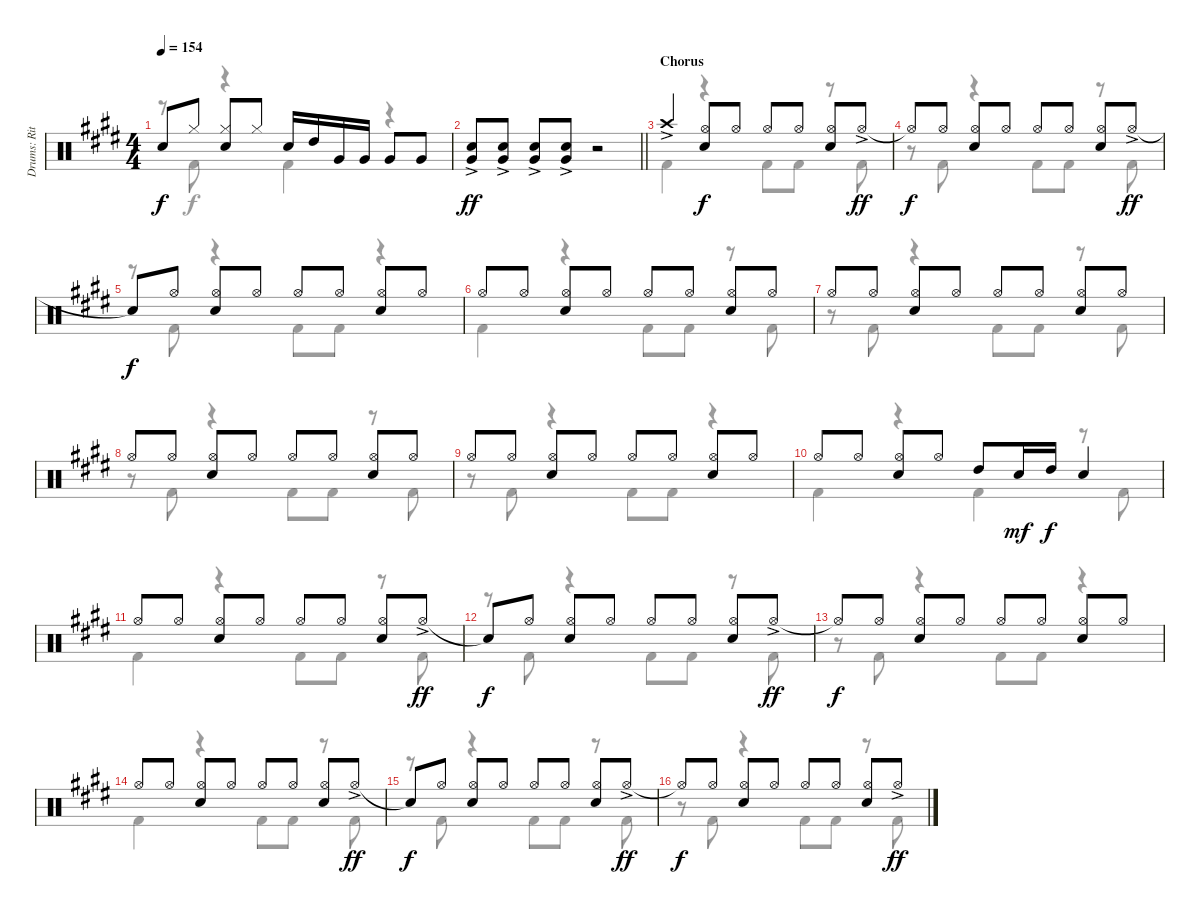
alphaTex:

\track ("Drums: Ritsu Tainaka" "Drums: Rit") {instrument percussion}
\staff {score}
\articulation defaults
\voice
\ts (4 4)
\tempo 154
\clef neutral
\ks e "Snare (hit)"{t}.8{dy f} "Hi-Hat (closed)".8
("Hi-Hat (closed)" "Electric Snare (hit)").8 "Hi-Hat (closed)".8 "Electric Snare (hit)".16 "High Tom (hit)".16 "Very Low Tom (hit)".16 "Very Low Tom (hit)".16 "Very Low Tom (hit)".8 "Very Low Tom (hit)".8 |
\barLineRight lightlight
("Electric Snare (hit)"{ac} "Very Low Tom (hit)"{ac}).8{dy ff} ("Electric Snare (hit)"{ac} "Very Low Tom (hit)"{ac}).8 ("Electric Snare (hit)"{ac} "Very Low Tom (hit)"{ac}).8 ("Electric Snare (hit)"{ac} "Very Low Tom (hit)"{ac}).8 r.2 |
\section ("" "Chorus")
"Crash high (hit)"{ac}.4 ("Hi-Hat (open)" "Electric Snare (hit)").8{dy f} "Hi-Hat (open)".8 "Hi-Hat (open)".8 "Hi-Hat (open)".8 ("Hi-Hat (open)" "Electric Snare (hit)").8 "Hi-Hat (open)"{ac}.8{dy ff} |
"Hi-Hat (open)"{t}.8{dy f} "Hi-Hat (open)".8 ("Hi-Hat (open)" "Electric Snare (hit)").8 "Hi-Hat (open)".8 "Hi-Hat (open)".8 "Hi-Hat (open)".8 ("Hi-Hat (open)" "Electric Snare (hit)").8 "Hi-Hat (open)"{ac}.8{dy ff} |
"Snare (hit)"{t}.8{dy f} "Hi-Hat (open)".8 ("Hi-Hat (open)" "Electric Snare (hit)").8 "Hi-Hat (open)".8 "Hi-Hat (open)".8 "Hi-Hat (open)".8 ("Hi-Hat (open)" "Electric Snare (hit)").8 "Hi-Hat (open)".8 |
"Hi-Hat (open)".8 "Hi-Hat (open)".8 ("Hi-Hat (open)" "Electric Snare (hit)").8 "Hi-Hat (open)".8 "Hi-Hat (open)".8 "Hi-Hat (open)".8 ("Hi-Hat (open)" "Electric Snare (hit)").8 "Hi-Hat (open)".8 |
"Hi-Hat (open)".8 "Hi-Hat (open)".8 ("Hi-Hat (open)" "Electric Snare (hit)").8 "Hi-Hat (open)".8 "Hi-Hat (open)".8 "Hi-Hat (open)".8 ("Hi-Hat (open)" "Electric Snare (hit)").8 "Hi-Hat (open)".8 |
"Hi-Hat (open)".8 "Hi-Hat (open)".8 ("Hi-Hat (open)" "Electric Snare (hit)").8 "Hi-Hat (open)".8 "Hi-Hat (open)".8 "Hi-Hat (open)".8 ("Hi-Hat (open)" "Electric Snare (hit)").8 "Hi-Hat (open)".8 |
"Hi-Hat (open)".8 "Hi-Hat (open)".8 ("Hi-Hat (open)" "Electric Snare (hit)").8 "Hi-Hat (open)".8 "Hi-Hat (open)".8 "Hi-Hat (open)".8 ("Hi-Hat (open)" "Electric Snare (hit)").8 "Hi-Hat (open)".8 |
"Hi-Hat (open)".8 "Hi-Hat (open)".8 ("Hi-Hat (open)" "Electric Snare (hit)").8 "Hi-Hat (open)".8 "High Tom (hit)".8 "Electric Snare (hit)".16{dy mf} "High Tom (hit)".16{dy f} "Electric Snare (hit)".4 |
"Hi-Hat (open)".8 "Hi-Hat (open)".8 ("Hi-Hat (open)" "Electric Snare (hit)").8 "Hi-Hat (open)".8 "Hi-Hat (open)".8 "Hi-Hat (open)".8 ("Hi-Hat (open)" "Electric Snare (hit)").8 "Hi-Hat (open)"{ac}.8{dy ff} |
"Snare (hit)"{t}.8{dy f} "Hi-Hat (open)".8 ("Hi-Hat (open)" "Electric Snare (hit)").8 "Hi-Hat (open)".8 "Hi-Hat (open)".8 "Hi-Hat (open)".8 ("Hi-Hat (open)" "Electric Snare (hit)").8 "Hi-Hat (open)"{ac}.8{dy ff} |
"Hi-Hat (open)"{t}.8{dy f} "Hi-Hat (open)".8 ("Hi-Hat (open)" "Electric Snare (hit)").8 "Hi-Hat (open)".8 "Hi-Hat (open)".8 "Hi-Hat (open)".8 ("Hi-Hat (open)" "Electric Snare (hit)").8 "Hi-Hat (open)".8 |
"Hi-Hat (open)".8 "Hi-Hat (open)".8 ("Hi-Hat (open)" "Electric Snare (hit)").8 "Hi-Hat (open)".8 "Hi-Hat (open)".8 "Hi-Hat (open)".8 ("Hi-Hat (open)" "Electric Snare (hit)").8 "Hi-Hat (open)"{ac}.8{dy ff} |
"Snare (hit)"{t}.8{dy f} "Hi-Hat (open)".8 ("Hi-Hat (open)" "Electric Snare (hit)").8 "Hi-Hat (open)".8 "Hi-Hat (open)".8 "Hi-Hat (open)".8 ("Hi-Hat (open)" "Electric Snare (hit)").8 "Hi-Hat (open)"{ac}.8{dy ff} |
"Hi-Hat (open)"{t}.8{dy f} "Hi-Hat (open)".8 ("Hi-Hat (open)" "Electric Snare (hit)").8 "Hi-Hat (open)".8 "Hi-Hat (open)".8 "Hi-Hat (open)".8 ("Hi-Hat (open)" "Electric Snare (hit)").8 "Hi-Hat (open)"{ac}.8{dy ff}
\voice
\clef neutral
\ottava regular
\simile none
\ks e
r.8{dy f} "Kick (hit) 2".8 r.4 "Kick (hit) 2".4 r.4 |
\barLineRight lightlight
|
"Kick (hit) 2".4 r.4 "Kick (hit) 2".8 "Kick (hit) 2".8 r.8 "Kick (hit) 2".8 |
r.8 "Kick (hit) 2".8 r.4 "Kick (hit) 2".8 "Kick (hit) 2".8 r.8 "Kick (hit) 2".8 |
r.8 "Kick (hit) 2".8 r.4 "Kick (hit) 2".8 "Kick (hit) 2".8 r.4 |
"Kick (hit) 2".4 r.4 "Kick (hit) 2".8 "Kick (hit) 2".8 r.8 "Kick (hit) 2".8 |
r.8 "Kick (hit) 2".8 r.4 "Kick (hit) 2".8 "Kick (hit) 2".8 r.8 "Kick (hit) 2".8 |
r.8 "Kick (hit) 2".8 r.4 "Kick (hit) 2".8 "Kick (hit) 2".8 r.8 "Kick (hit) 2".8 |
r.8 "Kick (hit) 2".8 r.4 "Kick (hit) 2".8 "Kick (hit) 2".8 r.4 |
"Kick (hit) 2".4 r.4 "Kick (hit) 2".4 r.8 "Kick (hit) 2".8 |
"Kick (hit) 2".4 r.4 "Kick (hit) 2".8 "Kick (hit) 2".8 r.8 "Kick (hit) 2".8 |
r.8 "Kick (hit) 2".8 r.4 "Kick (hit) 2".8 "Kick (hit) 2".8 r.8 "Kick (hit) 2".8 |
r.8 "Kick (hit) 2".8 r.4 "Kick (hit) 2".8 "Kick (hit) 2".8 r.4 |
"Kick (hit) 2".4 r.4 "Kick (hit) 2".8 "Kick (hit) 2".8 r.8 "Kick (hit) 2".8 |
r.8 "Kick (hit) 2".8 r.4 "Kick (hit) 2".8 "Kick (hit) 2".8 r.8 "Kick (hit) 2".8 |
r.8 "Kick (hit) 2".8 r.4 "Kick (hit) 2".8 "Kick (hit) 2".8 r.8 "Kick (hit) 2".8
